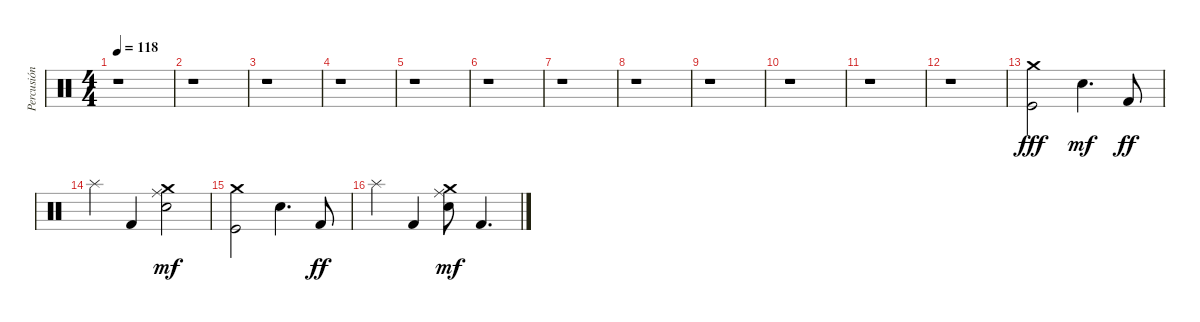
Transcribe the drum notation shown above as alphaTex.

\track ("Percusión" "Percusión") {instrument percussion}
\staff {score}
\articulation defaults
\ts (4 4)
\tempo 118
\clef neutral
\ks c
r.1{dy f} |
r.1 |
r.1 |
r.1 |
r.1 |
r.1 |
r.1 |
r.1 |
r.1 |
r.1 |
r.1 |
r.1 |
("Kick (hit)" "Crash medium (hit)").2{dy fff} "Snare (hit) 2".4{d dy mf} "Kick (hit) 2".8{dy ff} |
"Splash (hit)".4 "Kick (hit) 2".4 ("Ride (middle)" "Crash medium (hit)" "Snare (hit) 2").2{dy mf} |
("Kick (hit)" "Crash medium (hit)").2 "Snare (hit) 2".4{d} "Kick (hit) 2".8{dy ff} |
"Splash (hit)".4 "Kick (hit) 2".4 ("Ride (middle)" "Crash medium (hit)" "Snare (hit) 2").8{dy mf} "Kick (hit) 2".4{d}
